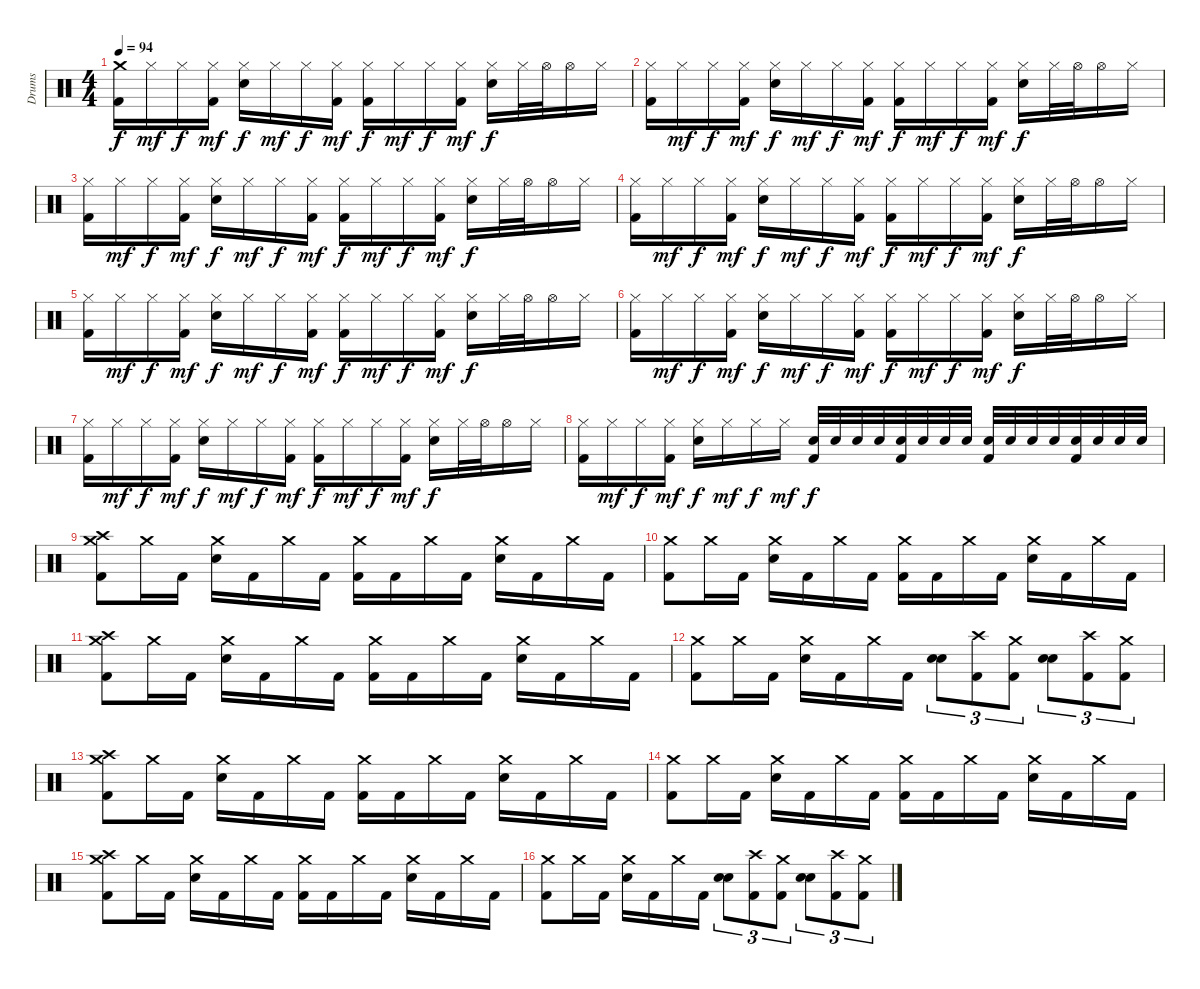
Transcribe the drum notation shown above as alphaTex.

\track ("Drums" "Drums") {instrument percussion}
\staff {score}
\articulation defaults
\ts (4 4)
\tempo 94
\clef neutral
\ks c
("Crash medium (hit)" "Kick (hit) 2").16{dy f} "Hi-Hat (closed)".16{dy mf} "Hi-Hat (closed)".16{dy f} ("Kick (hit) 2" "Hi-Hat (closed)").16{dy mf} ("Electric Snare (hit)" "Hi-Hat (closed)").16{dy f} "Hi-Hat (closed)".16{dy mf} "Hi-Hat (closed)".16{dy f} ("Kick (hit) 2" "Hi-Hat (closed)").16{dy mf} ("Kick (hit) 2" "Hi-Hat (closed)").16{dy f} "Hi-Hat (closed)".16{dy mf} "Hi-Hat (closed)".16{dy f} ("Kick (hit) 2" "Hi-Hat (closed)").16{dy mf} ("Electric Snare (hit)" "Hi-Hat (closed)").16{dy f} "Hi-Hat (closed)".32 "Hi-Hat (open)".32 "Hi-Hat (open)".16 "Hi-Hat (closed)".16 |
("Hi-Hat (closed)" "Kick (hit) 2").16 "Hi-Hat (closed)".16{dy mf} "Hi-Hat (closed)".16{dy f} ("Kick (hit) 2" "Hi-Hat (closed)").16{dy mf} ("Electric Snare (hit)" "Hi-Hat (closed)").16{dy f} "Hi-Hat (closed)".16{dy mf} "Hi-Hat (closed)".16{dy f} ("Kick (hit) 2" "Hi-Hat (closed)").16{dy mf} ("Kick (hit) 2" "Hi-Hat (closed)").16{dy f} "Hi-Hat (closed)".16{dy mf} "Hi-Hat (closed)".16{dy f} ("Kick (hit) 2" "Hi-Hat (closed)").16{dy mf} ("Electric Snare (hit)" "Hi-Hat (closed)").16{dy f} "Hi-Hat (closed)".32 "Hi-Hat (open)".32 "Hi-Hat (open)".16 "Hi-Hat (closed)".16 |
("Hi-Hat (closed)" "Kick (hit) 2").16 "Hi-Hat (closed)".16{dy mf} "Hi-Hat (closed)".16{dy f} ("Kick (hit) 2" "Hi-Hat (closed)").16{dy mf} ("Electric Snare (hit)" "Hi-Hat (closed)").16{dy f} "Hi-Hat (closed)".16{dy mf} "Hi-Hat (closed)".16{dy f} ("Kick (hit) 2" "Hi-Hat (closed)").16{dy mf} ("Kick (hit) 2" "Hi-Hat (closed)").16{dy f} "Hi-Hat (closed)".16{dy mf} "Hi-Hat (closed)".16{dy f} ("Kick (hit) 2" "Hi-Hat (closed)").16{dy mf} ("Electric Snare (hit)" "Hi-Hat (closed)").16{dy f} "Hi-Hat (closed)".32 "Hi-Hat (open)".32 "Hi-Hat (open)".16 "Hi-Hat (closed)".16 |
("Hi-Hat (closed)" "Kick (hit) 2").16 "Hi-Hat (closed)".16{dy mf} "Hi-Hat (closed)".16{dy f} ("Kick (hit) 2" "Hi-Hat (closed)").16{dy mf} ("Electric Snare (hit)" "Hi-Hat (closed)").16{dy f} "Hi-Hat (closed)".16{dy mf} "Hi-Hat (closed)".16{dy f} ("Kick (hit) 2" "Hi-Hat (closed)").16{dy mf} ("Kick (hit) 2" "Hi-Hat (closed)").16{dy f} "Hi-Hat (closed)".16{dy mf} "Hi-Hat (closed)".16{dy f} ("Kick (hit) 2" "Hi-Hat (closed)").16{dy mf} ("Electric Snare (hit)" "Hi-Hat (closed)").16{dy f} "Hi-Hat (closed)".32 "Hi-Hat (open)".32 "Hi-Hat (open)".16 "Hi-Hat (closed)".16 |
("Hi-Hat (closed)" "Kick (hit) 2").16 "Hi-Hat (closed)".16{dy mf} "Hi-Hat (closed)".16{dy f} ("Kick (hit) 2" "Hi-Hat (closed)").16{dy mf} ("Electric Snare (hit)" "Hi-Hat (closed)").16{dy f} "Hi-Hat (closed)".16{dy mf} "Hi-Hat (closed)".16{dy f} ("Kick (hit) 2" "Hi-Hat (closed)").16{dy mf} ("Kick (hit) 2" "Hi-Hat (closed)").16{dy f} "Hi-Hat (closed)".16{dy mf} "Hi-Hat (closed)".16{dy f} ("Kick (hit) 2" "Hi-Hat (closed)").16{dy mf} ("Electric Snare (hit)" "Hi-Hat (closed)").16{dy f} "Hi-Hat (closed)".32 "Hi-Hat (open)".32 "Hi-Hat (open)".16 "Hi-Hat (closed)".16 |
("Hi-Hat (closed)" "Kick (hit) 2").16 "Hi-Hat (closed)".16{dy mf} "Hi-Hat (closed)".16{dy f} ("Kick (hit) 2" "Hi-Hat (closed)").16{dy mf} ("Electric Snare (hit)" "Hi-Hat (closed)").16{dy f} "Hi-Hat (closed)".16{dy mf} "Hi-Hat (closed)".16{dy f} ("Kick (hit) 2" "Hi-Hat (closed)").16{dy mf} ("Kick (hit) 2" "Hi-Hat (closed)").16{dy f} "Hi-Hat (closed)".16{dy mf} "Hi-Hat (closed)".16{dy f} ("Kick (hit) 2" "Hi-Hat (closed)").16{dy mf} ("Electric Snare (hit)" "Hi-Hat (closed)").16{dy f} "Hi-Hat (closed)".32 "Hi-Hat (open)".32 "Hi-Hat (open)".16 "Hi-Hat (closed)".16 |
("Hi-Hat (closed)" "Kick (hit) 2").16 "Hi-Hat (closed)".16{dy mf} "Hi-Hat (closed)".16{dy f} ("Kick (hit) 2" "Hi-Hat (closed)").16{dy mf} ("Electric Snare (hit)" "Hi-Hat (closed)").16{dy f} "Hi-Hat (closed)".16{dy mf} "Hi-Hat (closed)".16{dy f} ("Kick (hit) 2" "Hi-Hat (closed)").16{dy mf} ("Kick (hit) 2" "Hi-Hat (closed)").16{dy f} "Hi-Hat (closed)".16{dy mf} "Hi-Hat (closed)".16{dy f} ("Kick (hit) 2" "Hi-Hat (closed)").16{dy mf} ("Electric Snare (hit)" "Hi-Hat (closed)").16{dy f} "Hi-Hat (closed)".32 "Hi-Hat (open)".32 "Hi-Hat (open)".16 "Hi-Hat (closed)".16 |
("Hi-Hat (closed)" "Kick (hit) 2").16 "Hi-Hat (closed)".16{dy mf} "Hi-Hat (closed)".16{dy f} ("Kick (hit) 2" "Hi-Hat (closed)").16{dy mf} ("Electric Snare (hit)" "Hi-Hat (closed)").16{dy f} "Hi-Hat (closed)".16{dy mf} "Hi-Hat (closed)".16{dy f} "Hi-Hat (closed)".16{dy mf} ("Kick (hit) 2" "Electric Snare (hit)").32{dy f} "Electric Snare (hit)".32 "Electric Snare (hit)".32 "Electric Snare (hit)".32 ("Kick (hit) 2" "Electric Snare (hit)").32 "Electric Snare (hit)".32 "Electric Snare (hit)".32 "Electric Snare (hit)".32 ("Kick (hit) 2" "Electric Snare (hit)").32 "Electric Snare (hit)".32 "Electric Snare (hit)".32 "Electric Snare (hit)".32 ("Kick (hit) 2" "Electric Snare (hit)").32 "Electric Snare (hit)".32 "Electric Snare (hit)".32 "Electric Snare (hit)".32 |
("Crash high (hit)" "Crash medium (hit)" "Kick (hit) 2").8 "Crash medium (hit)".16 "Kick (hit) 2".16 ("Crash medium (hit)" "Electric Snare (hit)").16 "Kick (hit) 2".16 "Crash medium (hit)".16 "Kick (hit) 2".16 ("Crash medium (hit)" "Kick (hit) 2").16 "Kick (hit) 2".16 "Crash medium (hit)".16 "Kick (hit) 2".16 ("Electric Snare (hit)" "Crash medium (hit)").16 "Kick (hit) 2".16 "Crash medium (hit)".16 "Kick (hit) 2".16 |
("Crash medium (hit)" "Kick (hit) 2").8 "Crash medium (hit)".16 "Kick (hit) 2".16 ("Crash medium (hit)" "Electric Snare (hit)").16 "Kick (hit) 2".16 "Crash medium (hit)".16 "Kick (hit) 2".16 ("Crash medium (hit)" "Kick (hit) 2").16 "Kick (hit) 2".16 "Crash medium (hit)".16 "Kick (hit) 2".16 ("Electric Snare (hit)" "Crash medium (hit)").16 "Kick (hit) 2".16 "Crash medium (hit)".16 "Kick (hit) 2".16 |
("Crash high (hit)" "Crash medium (hit)" "Kick (hit) 2").8 "Crash medium (hit)".16 "Kick (hit) 2".16 ("Crash medium (hit)" "Electric Snare (hit)").16 "Kick (hit) 2".16 "Crash medium (hit)".16 "Kick (hit) 2".16 ("Crash medium (hit)" "Kick (hit) 2").16 "Kick (hit) 2".16 "Crash medium (hit)".16 "Kick (hit) 2".16 ("Electric Snare (hit)" "Crash medium (hit)").16 "Kick (hit) 2".16 "Crash medium (hit)".16 "Kick (hit) 2".16 |
("Crash medium (hit)" "Kick (hit) 2").8 "Crash medium (hit)".16 "Kick (hit) 2".16 ("Crash medium (hit)" "Electric Snare (hit)").16 "Kick (hit) 2".16 "Crash medium (hit)".16 "Kick (hit) 2".16 ("Snare (hit) 2" "Electric Snare (hit)").8{tu (3 2)} ("Crash high (hit)" "Kick (hit) 2").8{tu (3 2)} ("Crash medium (hit)" "Kick (hit) 2").8{tu (3 2)} ("Snare (hit) 2" "Electric Snare (hit)").8{tu (3 2)} ("Crash high (hit)" "Kick (hit) 2").8{tu (3 2)} ("Crash medium (hit)" "Kick (hit) 2").8{tu (3 2)} |
("Crash high (hit)" "Crash medium (hit)" "Kick (hit) 2").8 "Crash medium (hit)".16 "Kick (hit) 2".16 ("Crash medium (hit)" "Electric Snare (hit)").16 "Kick (hit) 2".16 "Crash medium (hit)".16 "Kick (hit) 2".16 ("Crash medium (hit)" "Kick (hit) 2").16 "Kick (hit) 2".16 "Crash medium (hit)".16 "Kick (hit) 2".16 ("Electric Snare (hit)" "Crash medium (hit)").16 "Kick (hit) 2".16 "Crash medium (hit)".16 "Kick (hit) 2".16 |
("Crash medium (hit)" "Kick (hit) 2").8 "Crash medium (hit)".16 "Kick (hit) 2".16 ("Crash medium (hit)" "Electric Snare (hit)").16 "Kick (hit) 2".16 "Crash medium (hit)".16 "Kick (hit) 2".16 ("Crash medium (hit)" "Kick (hit) 2").16 "Kick (hit) 2".16 "Crash medium (hit)".16 "Kick (hit) 2".16 ("Electric Snare (hit)" "Crash medium (hit)").16 "Kick (hit) 2".16 "Crash medium (hit)".16 "Kick (hit) 2".16 |
("Crash high (hit)" "Crash medium (hit)" "Kick (hit) 2").8 "Crash medium (hit)".16 "Kick (hit) 2".16 ("Crash medium (hit)" "Electric Snare (hit)").16 "Kick (hit) 2".16 "Crash medium (hit)".16 "Kick (hit) 2".16 ("Crash medium (hit)" "Kick (hit) 2").16 "Kick (hit) 2".16 "Crash medium (hit)".16 "Kick (hit) 2".16 ("Electric Snare (hit)" "Crash medium (hit)").16 "Kick (hit) 2".16 "Crash medium (hit)".16 "Kick (hit) 2".16 |
("Crash medium (hit)" "Kick (hit) 2").8 "Crash medium (hit)".16 "Kick (hit) 2".16 ("Crash medium (hit)" "Electric Snare (hit)").16 "Kick (hit) 2".16 "Crash medium (hit)".16 "Kick (hit) 2".16 ("Snare (hit) 2" "Electric Snare (hit)").8{tu (3 2)} ("Crash high (hit)" "Kick (hit) 2").8{tu (3 2)} ("Crash medium (hit)" "Kick (hit) 2").8{tu (3 2)} ("Snare (hit) 2" "Electric Snare (hit)").8{tu (3 2)} ("Crash high (hit)" "Kick (hit) 2").8{tu (3 2)} ("Crash medium (hit)" "Kick (hit) 2").8{tu (3 2)}
